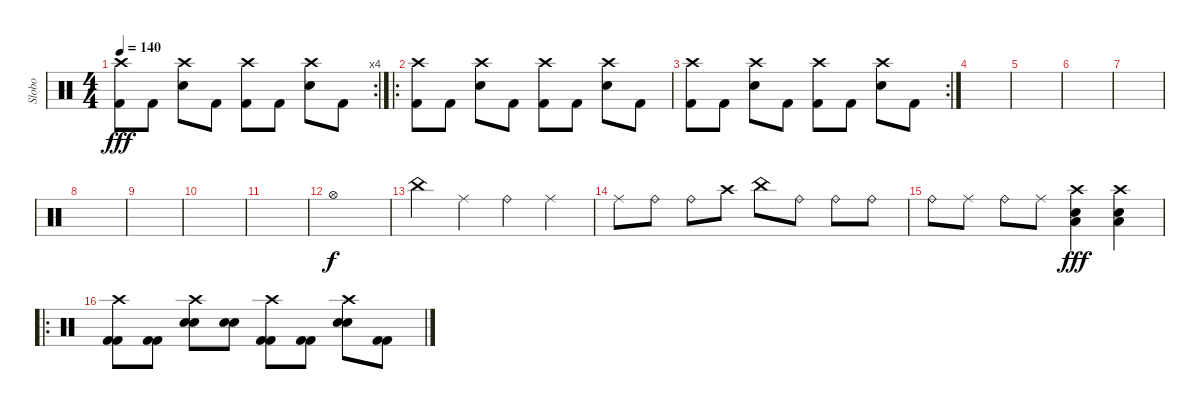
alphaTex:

\track ("Slobo" "Slobo") {instrument percussion}
\staff {score}
\articulation defaults
\rc 4
\ts (4 4)
\tempo 140
\clef neutral
\ks c
("Crash high (hit)" "Kick (hit) 2").8{dy fff} "Kick (hit) 2".8 ("Crash high (hit)" "Snare (hit) 2").8 "Kick (hit) 2".8 ("Crash high (hit)" "Kick (hit) 2").8 "Kick (hit) 2".8 ("Crash high (hit)" "Snare (hit) 2").8 "Kick (hit) 2".8 |
\ro
("Crash high (hit)" "Kick (hit) 2").8 "Kick (hit) 2".8 ("Crash high (hit)" "Snare (hit) 2").8 "Kick (hit) 2".8 ("Crash high (hit)" "Kick (hit) 2").8 "Kick (hit) 2".8 ("Crash high (hit)" "Snare (hit) 2").8 "Kick (hit) 2".8 |
\rc 2
("Crash high (hit)" "Kick (hit) 2").8 "Kick (hit) 2".8 ("Crash high (hit)" "Snare (hit) 2").8 "Kick (hit) 2".8 ("Crash high (hit)" "Kick (hit) 2").8 "Kick (hit) 2".8 ("Crash high (hit)" "Snare (hit) 2").8 "Kick (hit) 2".8 |
|
|
|
|
|
|
|
|
"Hi-Hat (open)".1{dy f} |
"China (hit)".4 "Ride (middle)".4 "Ride (bell)".4 "Ride (middle)".4 |
"Ride (middle)".8 "Ride (bell)".8 "Ride (bell)".8 "Crash high (hit)".8 "China (hit)".8 "Ride (bell)".8 "Ride (bell)".8 "Ride (bell)".8 |
"Ride (bell)".8 "Ride (middle)".8 "Ride (bell)".8 "Ride (middle)".8 ("Crash high (hit)" "Snare (hit) 2" "Low Floor Tom (hit)").4{dy fff} ("Crash high (hit)" "Snare (hit) 2" "Low Floor Tom (hit)").4 |
\ro
("Crash high (hit)" "Kick (hit) 2" "Kick (hit) 2").8 ("Kick (hit) 2" "Kick (hit) 2").8 ("Crash high (hit)" "Snare (hit) 2" "Snare (hit) 2").8 ("Snare (hit) 2" "Snare (hit) 2").8 ("Crash high (hit)" "Kick (hit) 2" "Kick (hit) 2").8 ("Kick (hit) 2" "Kick (hit) 2").8 ("Crash high (hit)" "Snare (hit) 2" "Snare (hit) 2").8 ("Kick (hit) 2" "Kick (hit) 2").8
